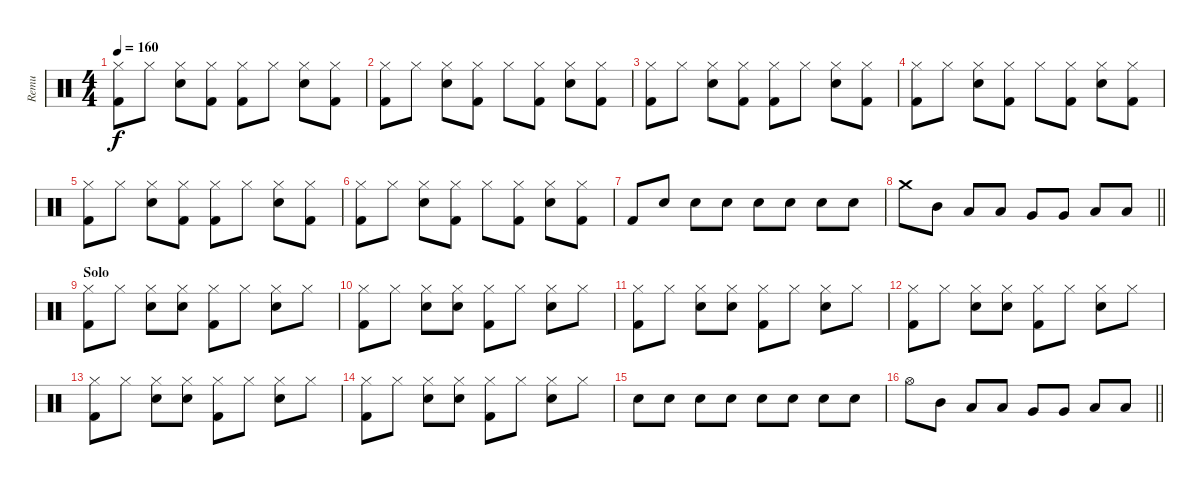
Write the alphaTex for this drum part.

\track ("Remu" "Remu") {instrument percussion}
\staff {score}
\articulation defaults
\ts (4 4)
\tempo 160
\clef neutral
\ks c
("Hi-Hat (closed)" "Kick (hit) 2").8{dy f} "Hi-Hat (closed)".8 ("Hi-Hat (closed)" "Electric Snare (hit)").8 ("Hi-Hat (closed)" "Kick (hit) 2").8 ("Hi-Hat (closed)" "Kick (hit) 2").8 "Hi-Hat (closed)".8 ("Hi-Hat (closed)" "Electric Snare (hit)").8 ("Hi-Hat (closed)" "Kick (hit) 2").8 |
("Hi-Hat (closed)" "Kick (hit) 2").8 "Hi-Hat (closed)".8 ("Hi-Hat (closed)" "Electric Snare (hit)").8 ("Hi-Hat (closed)" "Kick (hit) 2").8 "Hi-Hat (closed)".8 ("Hi-Hat (closed)" "Kick (hit) 2").8 ("Hi-Hat (closed)" "Electric Snare (hit)").8 ("Hi-Hat (closed)" "Kick (hit) 2").8 |
("Hi-Hat (closed)" "Kick (hit) 2").8 "Hi-Hat (closed)".8 ("Hi-Hat (closed)" "Electric Snare (hit)").8 ("Hi-Hat (closed)" "Kick (hit) 2").8 ("Hi-Hat (closed)" "Kick (hit) 2").8 "Hi-Hat (closed)".8 ("Hi-Hat (closed)" "Electric Snare (hit)").8 ("Hi-Hat (closed)" "Kick (hit) 2").8 |
("Hi-Hat (closed)" "Kick (hit) 2").8 "Hi-Hat (closed)".8 ("Hi-Hat (closed)" "Electric Snare (hit)").8 ("Hi-Hat (closed)" "Kick (hit) 2").8 "Hi-Hat (closed)".8 ("Hi-Hat (closed)" "Kick (hit) 2").8 ("Hi-Hat (closed)" "Electric Snare (hit)").8 ("Hi-Hat (closed)" "Kick (hit) 2").8 |
("Hi-Hat (closed)" "Kick (hit) 2").8 "Hi-Hat (closed)".8 ("Hi-Hat (closed)" "Electric Snare (hit)").8 ("Hi-Hat (closed)" "Kick (hit) 2").8 ("Hi-Hat (closed)" "Kick (hit) 2").8 "Hi-Hat (closed)".8 ("Hi-Hat (closed)" "Electric Snare (hit)").8 ("Hi-Hat (closed)" "Kick (hit) 2").8 |
("Hi-Hat (closed)" "Kick (hit) 2").8 "Hi-Hat (closed)".8 ("Hi-Hat (closed)" "Electric Snare (hit)").8 ("Hi-Hat (closed)" "Kick (hit) 2").8 "Hi-Hat (closed)".8 ("Hi-Hat (closed)" "Kick (hit) 2").8 ("Hi-Hat (closed)" "Electric Snare (hit)").8 ("Hi-Hat (closed)" "Kick (hit) 2").8 |
"Kick (hit) 2".8 "Snare (hit) 2".8 "Snare (hit) 2".8 "Snare (hit) 2".8 "Snare (hit) 2".8 "Snare (hit) 2".8 "Snare (hit) 2".8 "Snare (hit) 2".8 |
\barLineRight lightlight "Crash medium (hit)".8 "Mid Tom (hit)".8 "Low Tom (hit)".8 "Low Tom (hit)".8 "Very Low Tom (hit)".8 "Very Low Tom (hit)".8 "Low Floor Tom (hit)".8 "Low Floor Tom (hit)".8
|
\section ("" "Solo")
("Hi-Hat (closed)" "Kick (hit) 2").8 "Hi-Hat (closed)".8 ("Hi-Hat (closed)" "Snare (hit) 2").8 ("Hi-Hat (closed)" "Snare (hit) 2").8 ("Hi-Hat (closed)" "Kick (hit) 2").8 "Hi-Hat (closed)".8 ("Hi-Hat (closed)" "Snare (hit) 2").8 "Hi-Hat (closed)".8 |
("Hi-Hat (closed)" "Kick (hit) 2").8 "Hi-Hat (closed)".8 ("Hi-Hat (closed)" "Snare (hit) 2").8 ("Hi-Hat (closed)" "Snare (hit) 2").8 ("Hi-Hat (closed)" "Kick (hit) 2").8 "Hi-Hat (closed)".8 ("Hi-Hat (closed)" "Snare (hit) 2").8 "Hi-Hat (closed)".8 |
("Hi-Hat (closed)" "Kick (hit) 2").8 "Hi-Hat (closed)".8 ("Hi-Hat (closed)" "Snare (hit) 2").8 ("Hi-Hat (closed)" "Snare (hit) 2").8 ("Hi-Hat (closed)" "Kick (hit) 2").8 "Hi-Hat (closed)".8 ("Hi-Hat (closed)" "Snare (hit) 2").8 "Hi-Hat (closed)".8 |
("Hi-Hat (closed)" "Kick (hit) 2").8 "Hi-Hat (closed)".8 ("Hi-Hat (closed)" "Snare (hit) 2").8 ("Hi-Hat (closed)" "Snare (hit) 2").8 ("Hi-Hat (closed)" "Kick (hit) 2").8 "Hi-Hat (closed)".8 ("Hi-Hat (closed)" "Snare (hit) 2").8 "Hi-Hat (closed)".8 |
("Hi-Hat (closed)" "Kick (hit) 2").8 "Hi-Hat (closed)".8 ("Hi-Hat (closed)" "Snare (hit) 2").8 ("Hi-Hat (closed)" "Snare (hit) 2").8 ("Hi-Hat (closed)" "Kick (hit) 2").8 "Hi-Hat (closed)".8 ("Hi-Hat (closed)" "Snare (hit) 2").8 "Hi-Hat (closed)".8 |
("Hi-Hat (closed)" "Kick (hit) 2").8 "Hi-Hat (closed)".8 ("Hi-Hat (closed)" "Snare (hit) 2").8 ("Hi-Hat (closed)" "Snare (hit) 2").8 ("Hi-Hat (closed)" "Kick (hit) 2").8 "Hi-Hat (closed)".8 ("Hi-Hat (closed)" "Snare (hit) 2").8 "Hi-Hat (closed)".8 |
"Snare (hit) 2".8 "Snare (hit) 2".8 "Snare (hit) 2".8 "Snare (hit) 2".8 "Snare (hit) 2".8 "Snare (hit) 2".8 "Snare (hit) 2".8 "Snare (hit) 2".8 |
\barLineRight lightlight "Hi-Hat (open)".8 "Mid Tom (hit)".8 "Low Tom (hit)".8 "Low Tom (hit)".8 "Very Low Tom (hit)".8 "Very Low Tom (hit)".8 "Low Floor Tom (hit)".8 "Low Floor Tom (hit)".8
